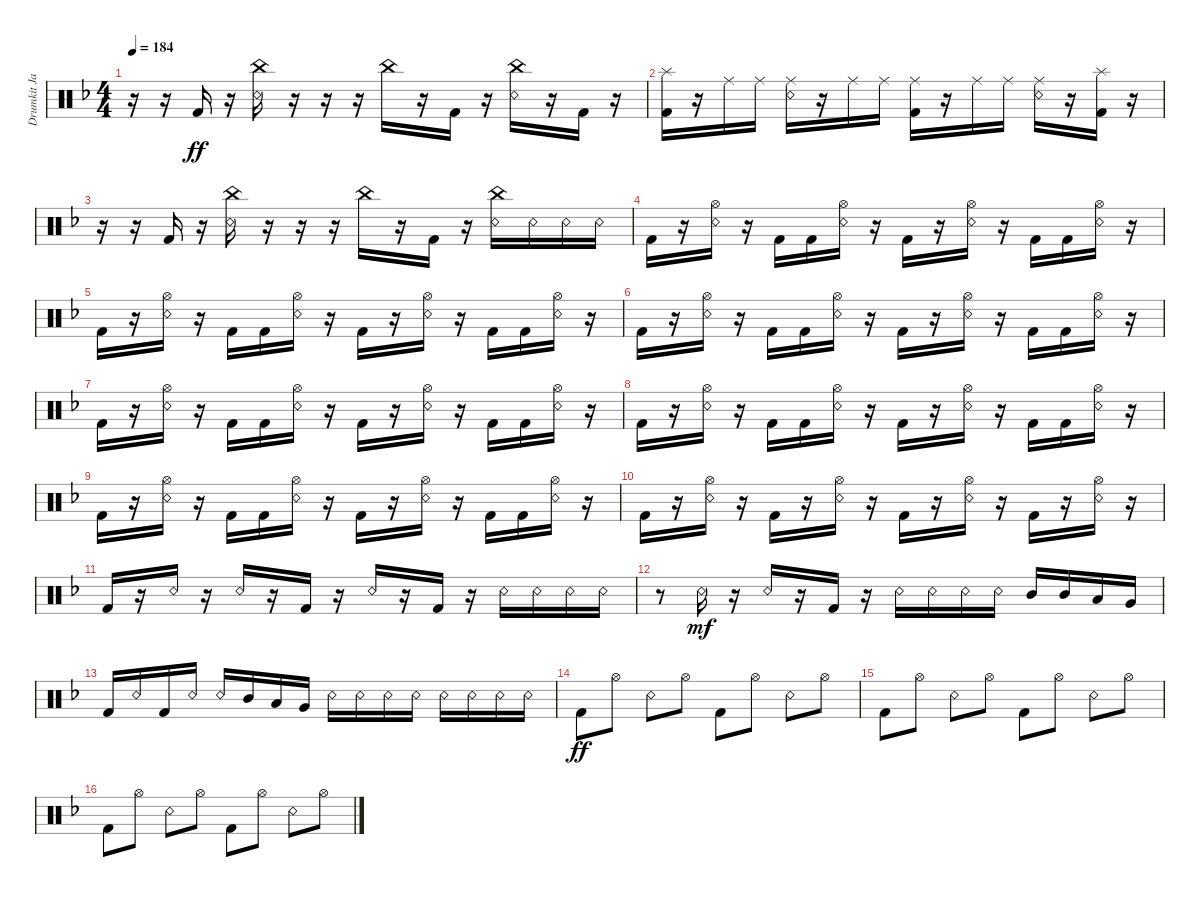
\track ("Drumkit Jason" "Drumkit Ja") {instrument percussion}
\staff {score}
\articulation defaults
\ts (4 4)
\tempo 184
\clef neutral
\ks dminor
r.16{dy ff} r.16 "Kick (hit) 2".16 r.16 ("China (hit)" "Snare (rim shot)").16 r.16 r.16 r.16 "China (hit)".16 r.16 "Kick (hit) 2".16 r.16 ("China (hit)" "Snare (rim shot)").16 r.16 "Kick (hit) 2".16 r.16 |
("Splash (hit)" "Kick (hit) 2").16 r.16 "Ride (middle)".16 "Ride (middle)".16 ("Ride (middle)" "Snare (rim shot)").16 r.16 "Ride (middle)".16 "Ride (middle)".16 ("Ride (middle)" "Kick (hit) 2").16 r.16 "Ride (middle)".16 "Ride (middle)".16 ("Ride (middle)" "Snare (rim shot)").16 r.16 ("Splash (hit)" "Kick (hit) 2").16 r.16 |
r.16 r.16 "Kick (hit) 2".16 r.16 ("China (hit)" "Snare (rim shot)").16 r.16 r.16 r.16 "China (hit)".16 r.16 "Kick (hit) 2".16 r.16 ("Snare (rim shot)" "China (hit)").16 "Snare (rim shot)".16 "Snare (rim shot)".16 "Snare (rim shot)".16 |
"Kick (hit) 2".16 r.16 ("Snare (rim shot)" "Hi-Hat (open)").16 r.16 "Kick (hit) 2".16 "Kick (hit) 2".16 ("Snare (rim shot)" "Hi-Hat (open)").16 r.16 "Kick (hit) 2".16 r.16 ("Snare (rim shot)" "Hi-Hat (open)").16 r.16 "Kick (hit) 2".16 "Kick (hit) 2".16 ("Snare (rim shot)" "Hi-Hat (open)").16 r.16 |
"Kick (hit) 2".16 r.16 ("Snare (rim shot)" "Hi-Hat (open)").16 r.16 "Kick (hit) 2".16 "Kick (hit) 2".16 ("Snare (rim shot)" "Hi-Hat (open)").16 r.16 "Kick (hit) 2".16 r.16 ("Snare (rim shot)" "Hi-Hat (open)").16 r.16 "Kick (hit) 2".16 "Kick (hit) 2".16 ("Snare (rim shot)" "Hi-Hat (open)").16 r.16 |
"Kick (hit) 2".16 r.16 ("Snare (rim shot)" "Hi-Hat (open)").16 r.16 "Kick (hit) 2".16 "Kick (hit) 2".16 ("Snare (rim shot)" "Hi-Hat (open)").16 r.16 "Kick (hit) 2".16 r.16 ("Snare (rim shot)" "Hi-Hat (open)").16 r.16 "Kick (hit) 2".16 "Kick (hit) 2".16 ("Snare (rim shot)" "Hi-Hat (open)").16 r.16 |
"Kick (hit) 2".16 r.16 ("Snare (rim shot)" "Hi-Hat (open)").16 r.16 "Kick (hit) 2".16 "Kick (hit) 2".16 ("Snare (rim shot)" "Hi-Hat (open)").16 r.16 "Kick (hit) 2".16 r.16 ("Snare (rim shot)" "Hi-Hat (open)").16 r.16 "Kick (hit) 2".16 "Kick (hit) 2".16 ("Snare (rim shot)" "Hi-Hat (open)").16 r.16 |
"Kick (hit) 2".16 r.16 ("Snare (rim shot)" "Hi-Hat (open)").16 r.16 "Kick (hit) 2".16 "Kick (hit) 2".16 ("Snare (rim shot)" "Hi-Hat (open)").16 r.16 "Kick (hit) 2".16 r.16 ("Snare (rim shot)" "Hi-Hat (open)").16 r.16 "Kick (hit) 2".16 "Kick (hit) 2".16 ("Snare (rim shot)" "Hi-Hat (open)").16 r.16 |
"Kick (hit) 2".16 r.16 ("Snare (rim shot)" "Hi-Hat (open)").16 r.16 "Kick (hit) 2".16 "Kick (hit) 2".16 ("Snare (rim shot)" "Hi-Hat (open)").16 r.16 "Kick (hit) 2".16 r.16 ("Snare (rim shot)" "Hi-Hat (open)").16 r.16 "Kick (hit) 2".16 "Kick (hit) 2".16 ("Snare (rim shot)" "Hi-Hat (open)").16 r.16 |
"Kick (hit) 2".16 r.16 ("Snare (rim shot)" "Hi-Hat (open)").16 r.16 "Kick (hit) 2".16 r.16 ("Snare (rim shot)" "Hi-Hat (open)").16 r.16 "Kick (hit) 2".16 r.16 ("Snare (rim shot)" "Hi-Hat (open)").16 r.16 "Kick (hit) 2".16 r.16 ("Snare (rim shot)" "Hi-Hat (open)").16 r.16 |
"Kick (hit) 2".16 r.16 "Snare (rim shot)".16 r.16 "Snare (rim shot)".16 r.16 "Kick (hit) 2".16 r.16 "Snare (rim shot)".16 r.16 "Kick (hit) 2".16 r.16 "Snare (rim shot)".16 "Snare (rim shot)".16 "Snare (rim shot)".16 "Snare (rim shot)".16 |
r.8 "Snare (rim shot)".16{dy mf} r.16 "Snare (rim shot)".16 r.16 "Kick (hit) 2".16 r.16 "Snare (rim shot)".16 "Snare (rim shot)".16 "Snare (rim shot)".16 "Snare (rim shot)".16 "Mid Tom (hit)".16 "Mid Tom (hit)".16 "Low Tom (hit)".16 "Very Low Tom (hit)".16 |
"Kick (hit) 2".16 "Snare (rim shot)".16 "Kick (hit) 2".16 "Snare (rim shot)".16 "Snare (rim shot)".16 "Mid Tom (hit)".16 "Low Tom (hit)".16 "Very Low Tom (hit)".16 "Snare (rim shot)".16 "Snare (rim shot)".16 "Snare (rim shot)".16 "Snare (rim shot)".16 "Snare (rim shot)".16 "Snare (rim shot)".16 "Snare (rim shot)".16 "Snare (rim shot)".16 |
"Kick (hit) 2".8{dy ff} "Hi-Hat (open)".8 "Snare (rim shot)".8 "Hi-Hat (open)".8 "Kick (hit) 2".8 "Hi-Hat (open)".8 "Snare (rim shot)".8 "Hi-Hat (open)".8 |
"Kick (hit) 2".8 "Hi-Hat (open)".8 "Snare (rim shot)".8 "Hi-Hat (open)".8 "Kick (hit) 2".8 "Hi-Hat (open)".8 "Snare (rim shot)".8 "Hi-Hat (open)".8 |
"Kick (hit) 2".8 "Hi-Hat (open)".8 "Snare (rim shot)".8 "Hi-Hat (open)".8 "Kick (hit) 2".8 "Hi-Hat (open)".8 "Snare (rim shot)".8 "Hi-Hat (open)".8
